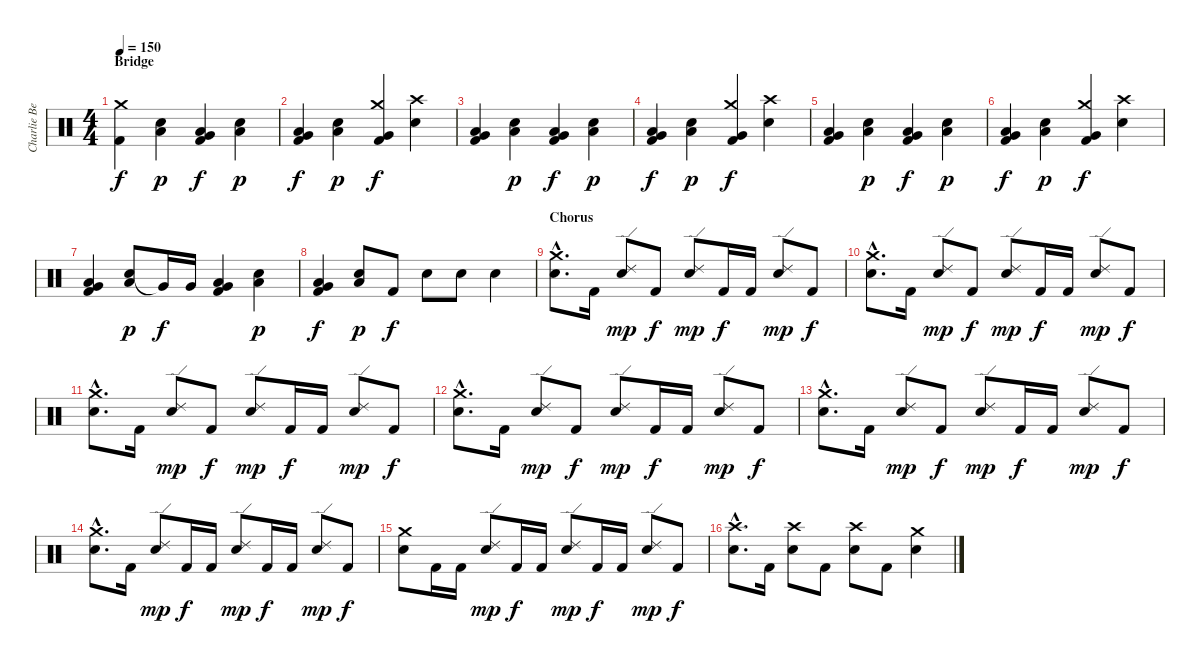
\track ("Charlie Benante" "Charlie Be") {instrument percussion}
\staff {score}
\articulation defaults
\ts (4 4)
\section ("" "Bridge")
\tempo 150
\clef neutral
\ks c
("Kick (hit) 2" "Crash medium (hit)").4{dy f} ("Snare (hit) 2" "Low Tom (hit)").4{dy p} ("Kick (hit) 2" "Low Tom (hit)" "Very Low Tom (hit)").4{dy f} ("Snare (hit) 2" "Low Tom (hit)").4{dy p} |
("Kick (hit) 2" "Low Tom (hit)" "Very Low Tom (hit)").4{dy f} ("Snare (hit) 2" "Low Tom (hit)").4{dy p} ("Kick (hit) 2" "Crash medium (hit)" "Very Low Tom (hit)").4{dy f} ("Crash high (hit)" "Snare (hit) 2").4 |
("Kick (hit) 2" "Low Tom (hit)" "Very Low Tom (hit)").4 ("Snare (hit) 2" "Low Tom (hit)").4{dy p} ("Kick (hit) 2" "Low Tom (hit)" "Very Low Tom (hit)").4{dy f} ("Snare (hit) 2" "Low Tom (hit)").4{dy p} |
("Kick (hit) 2" "Low Tom (hit)" "Very Low Tom (hit)").4{dy f} ("Snare (hit) 2" "Low Tom (hit)").4{dy p} ("Kick (hit) 2" "Crash medium (hit)" "Very Low Tom (hit)").4{dy f} ("Crash high (hit)" "Snare (hit) 2").4 |
("Kick (hit) 2" "Low Tom (hit)" "Very Low Tom (hit)").4 ("Snare (hit) 2" "Low Tom (hit)").4{dy p} ("Kick (hit) 2" "Low Tom (hit)" "Very Low Tom (hit)").4{dy f} ("Snare (hit) 2" "Low Tom (hit)").4{dy p} |
("Kick (hit) 2" "Low Tom (hit)" "Very Low Tom (hit)").4{dy f} ("Snare (hit) 2" "Low Tom (hit)").4{dy p} ("Kick (hit) 2" "Crash medium (hit)" "Very Low Tom (hit)").4{dy f} ("Crash high (hit)" "Snare (hit) 2").4 |
("Kick (hit) 2" "Low Tom (hit)" "Very Low Tom (hit)").4 ("Snare (hit) 2" "Low Tom (hit)").8{dy p} "Very Low Tom (hit)"{t}.16{dy f} "Very Low Tom (hit)".16 ("Kick (hit) 2" "Low Tom (hit)" "Very Low Tom (hit)").4 ("Snare (hit) 2" "Low Tom (hit)").4{dy p} |
("Kick (hit) 2" "Low Tom (hit)" "Very Low Tom (hit)").4{dy f} ("Snare (hit) 2" "Low Tom (hit)").8{dy p} "Kick (hit) 2".8{dy f} "Snare (hit) 2".8 "Snare (hit) 2".8 "Snare (hit) 2".4 |
\section ("" "Chorus")
("Crash medium (hit)"{hac} "Snare (hit) 2"{hac}).8{d} "Kick (hit) 2".16 ("Ride (edge) 2" "Snare (hit) 2").8{dy mp} "Kick (hit) 2".8{dy f} ("Ride (edge) 2" "Snare (hit) 2").8{dy mp} "Kick (hit) 2".16{dy f} "Kick (hit) 2".16 ("Ride (edge) 2" "Snare (hit) 2").8{dy mp} "Kick (hit) 2".8{dy f} |
("Crash medium (hit)"{hac} "Snare (hit) 2"{hac}).8{d} "Kick (hit) 2".16 ("Ride (edge) 2" "Snare (hit) 2").8{dy mp} "Kick (hit) 2".8{dy f} ("Ride (edge) 2" "Snare (hit) 2").8{dy mp} "Kick (hit) 2".16{dy f} "Kick (hit) 2".16 ("Ride (edge) 2" "Snare (hit) 2").8{dy mp} "Kick (hit) 2".8{dy f} |
("Crash medium (hit)"{hac} "Snare (hit) 2"{hac}).8{d} "Kick (hit) 2".16 ("Ride (edge) 2" "Snare (hit) 2").8{dy mp} "Kick (hit) 2".8{dy f} ("Ride (edge) 2" "Snare (hit) 2").8{dy mp} "Kick (hit) 2".16{dy f} "Kick (hit) 2".16 ("Ride (edge) 2" "Snare (hit) 2").8{dy mp} "Kick (hit) 2".8{dy f} |
("Crash medium (hit)"{hac} "Snare (hit) 2"{hac}).8{d} "Kick (hit) 2".16 ("Ride (edge) 2" "Snare (hit) 2").8{dy mp} "Kick (hit) 2".8{dy f} ("Ride (edge) 2" "Snare (hit) 2").8{dy mp} "Kick (hit) 2".16{dy f} "Kick (hit) 2".16 ("Ride (edge) 2" "Snare (hit) 2").8{dy mp} "Kick (hit) 2".8{dy f} |
("Crash medium (hit)"{hac} "Snare (hit) 2"{hac}).8{d} "Kick (hit) 2".16 ("Ride (edge) 2" "Snare (hit) 2").8{dy mp} "Kick (hit) 2".8{dy f} ("Ride (edge) 2" "Snare (hit) 2").8{dy mp} "Kick (hit) 2".16{dy f} "Kick (hit) 2".16 ("Ride (edge) 2" "Snare (hit) 2").8{dy mp} "Kick (hit) 2".8{dy f} |
("Crash medium (hit)"{hac} "Snare (hit) 2"{hac}).8{d} "Kick (hit) 2".16 ("Ride (edge) 2" "Snare (hit) 2").8{dy mp} "Kick (hit) 2".16{dy f} "Kick (hit) 2".16 ("Ride (edge) 2" "Snare (hit) 2").8{dy mp} "Kick (hit) 2".16{dy f} "Kick (hit) 2".16 ("Ride (edge) 2" "Snare (hit) 2").8{dy mp} "Kick (hit) 2".8{dy f} |
("Crash medium (hit)" "Snare (hit) 2").8 "Kick (hit) 2".16 "Kick (hit) 2".16 ("Ride (edge) 2" "Snare (hit) 2").8{dy mp} "Kick (hit) 2".16{dy f} "Kick (hit) 2".16 ("Ride (edge) 2" "Snare (hit) 2").8{dy mp} "Kick (hit) 2".16{dy f} "Kick (hit) 2".16 ("Ride (edge) 2" "Snare (hit) 2").8{dy mp} "Kick (hit) 2".8{dy f} |
("Crash high (hit)"{hac} "Snare (hit) 2"{hac}).8{d} "Kick (hit) 2".16 ("Crash high (hit)" "Snare (hit) 2").8 "Kick (hit) 2".8 ("Crash high (hit)" "Snare (hit) 2").8 "Kick (hit) 2".8 ("Crash medium (hit)" "Snare (hit) 2").4
